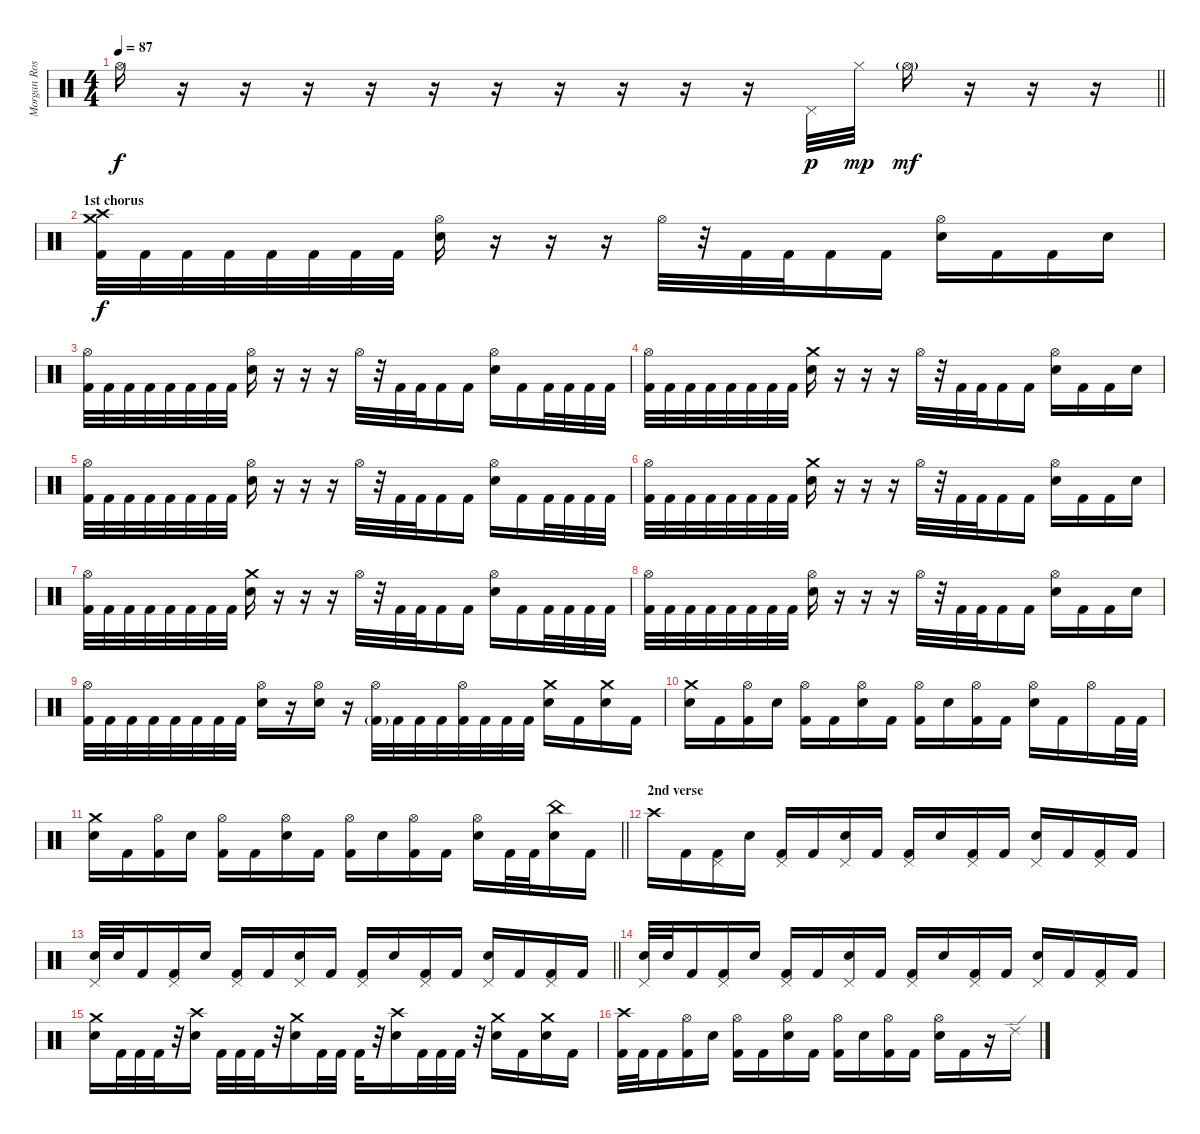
\track ("Morgan Rose" "Morgan Ros") {instrument percussion}
\staff {score}
\articulation defaults
\ts (4 4)
\tempo 87
\clef neutral
\barLineRight lightlight
\ks c "Hi-Hat (open)".16{dy f}
r.16 r.16 r.16 r.16 r.16 r.16 r.16 r.16 r.16 r.16 "Pedal Hi-Hat (hit)".32{dy p} "Hi-Hat (closed)".32{dy mp} "Hi-Hat (open)"{g}.16{dy mf} r.16 r.16 r.16 |
\section ("" "1st chorus")
("Crash medium (hit)" "Crash high (hit)" "Kick (hit) 2").32{dy f} "Kick (hit) 2".32 "Kick (hit) 2".32 "Kick (hit) 2".32 "Kick (hit) 2".32 "Kick (hit) 2".32 "Kick (hit) 2".32 "Kick (hit) 2".32 ("Hi-Hat (open)" "Snare (hit) 2").16 r.16 r.16 r.16 "Hi-Hat (open)".32 r.32 "Kick (hit) 2".32 "Kick (hit) 2".32 "Kick (hit) 2".16 "Kick (hit) 2".16 ("Hi-Hat (open)" "Snare (hit) 2").16 "Kick (hit) 2".16 "Kick (hit) 2".16 "Snare (hit) 2".16 |
("Hi-Hat (open)" "Kick (hit) 2").32 "Kick (hit) 2".32 "Kick (hit) 2".32 "Kick (hit) 2".32 "Kick (hit) 2".32 "Kick (hit) 2".32 "Kick (hit) 2".32 "Kick (hit) 2".32 ("Hi-Hat (open)" "Snare (hit) 2").16 r.16 r.16 r.16 "Hi-Hat (open)".32 r.32 "Kick (hit) 2".32 "Kick (hit) 2".32 "Kick (hit) 2".16 "Kick (hit) 2".16 ("Hi-Hat (open)" "Snare (hit) 2").16 "Kick (hit) 2".16 "Kick (hit) 2".32 "Kick (hit) 2".32 "Kick (hit) 2".32 "Kick (hit) 2".32 |
("Hi-Hat (open)" "Kick (hit) 2").32 "Kick (hit) 2".32 "Kick (hit) 2".32 "Kick (hit) 2".32 "Kick (hit) 2".32 "Kick (hit) 2".32 "Kick (hit) 2".32 "Kick (hit) 2".32 ("Crash medium (hit)" "Snare (hit) 2").16 r.16 r.16 r.16 "Hi-Hat (open)".32 r.32 "Kick (hit) 2".32 "Kick (hit) 2".32 "Kick (hit) 2".16 "Kick (hit) 2".16 ("Hi-Hat (open)" "Snare (hit) 2").16 "Kick (hit) 2".16 "Kick (hit) 2".16 "Snare (hit) 2".16 |
("Hi-Hat (open)" "Kick (hit) 2").32 "Kick (hit) 2".32 "Kick (hit) 2".32 "Kick (hit) 2".32 "Kick (hit) 2".32 "Kick (hit) 2".32 "Kick (hit) 2".32 "Kick (hit) 2".32 ("Hi-Hat (open)" "Snare (hit) 2").16 r.16 r.16 r.16 "Hi-Hat (open)".32 r.32 "Kick (hit) 2".32 "Kick (hit) 2".32 "Kick (hit) 2".16 "Kick (hit) 2".16 ("Hi-Hat (open)" "Snare (hit) 2").16 "Kick (hit) 2".16 "Kick (hit) 2".32 "Kick (hit) 2".32 "Kick (hit) 2".32 "Kick (hit) 2".32 |
("Hi-Hat (open)" "Kick (hit) 2").32 "Kick (hit) 2".32 "Kick (hit) 2".32 "Kick (hit) 2".32 "Kick (hit) 2".32 "Kick (hit) 2".32 "Kick (hit) 2".32 "Kick (hit) 2".32 ("Crash medium (hit)" "Snare (hit) 2").16 r.16 r.16 r.16 "Hi-Hat (open)".32 r.32 "Kick (hit) 2".32 "Kick (hit) 2".32 "Kick (hit) 2".16 "Kick (hit) 2".16 ("Hi-Hat (open)" "Snare (hit) 2").16 "Kick (hit) 2".16 "Kick (hit) 2".16 "Snare (hit) 2".16 |
("Hi-Hat (open)" "Kick (hit) 2").32 "Kick (hit) 2".32 "Kick (hit) 2".32 "Kick (hit) 2".32 "Kick (hit) 2".32 "Kick (hit) 2".32 "Kick (hit) 2".32 "Kick (hit) 2".32 ("Crash medium (hit)" "Snare (hit) 2").16 r.16 r.16 r.16 "Hi-Hat (open)".32 r.32 "Kick (hit) 2".32 "Kick (hit) 2".32 "Kick (hit) 2".16 "Kick (hit) 2".16 ("Hi-Hat (open)" "Snare (hit) 2").16 "Kick (hit) 2".16 "Kick (hit) 2".32 "Kick (hit) 2".32 "Kick (hit) 2".32 "Kick (hit) 2".32 |
("Hi-Hat (open)" "Kick (hit) 2").32 "Kick (hit) 2".32 "Kick (hit) 2".32 "Kick (hit) 2".32 "Kick (hit) 2".32 "Kick (hit) 2".32 "Kick (hit) 2".32 "Kick (hit) 2".32 ("Hi-Hat (open)" "Snare (hit) 2").16 r.16 r.16 r.16 "Hi-Hat (open)".32 r.32 "Kick (hit) 2".32 "Kick (hit) 2".32 "Kick (hit) 2".16 "Kick (hit) 2".16 ("Hi-Hat (open)" "Snare (hit) 2").16 "Kick (hit) 2".16 "Kick (hit) 2".16 "Snare (hit) 2".16 |
("Hi-Hat (open)" "Kick (hit) 2").32 "Kick (hit) 2".32 "Kick (hit) 2".32 "Kick (hit) 2".32 "Kick (hit) 2".32 "Kick (hit) 2".32 "Kick (hit) 2".32 "Kick (hit) 2".32 ("Hi-Hat (open)" "Snare (hit) 2").16 r.16 ("Hi-Hat (open)" "Snare (hit) 2").16 r.16 ("Hi-Hat (open)" "Kick (hit) 2"{g}).32 "Kick (hit) 2".32 "Kick (hit) 2".32 "Kick (hit) 2".32 ("Hi-Hat (open)" "Kick (hit) 2").32 "Kick (hit) 2".32 "Kick (hit) 2".32 "Kick (hit) 2".32 ("Crash medium (hit)" "Snare (hit) 2").16 "Kick (hit) 2".16 ("Crash medium (hit)" "Snare (hit) 2").16 "Kick (hit) 2".16 |
("Crash medium (hit)" "Snare (hit) 2").16 "Kick (hit) 2".16 ("Hi-Hat (open)" "Kick (hit) 2").16 "Snare (hit) 2".16 ("Hi-Hat (open)" "Kick (hit) 2").16 "Kick (hit) 2".16 ("Hi-Hat (open)" "Snare (hit) 2").16 "Kick (hit) 2".16 ("Hi-Hat (open)" "Kick (hit) 2").16 "Snare (hit) 2".16 ("Hi-Hat (open)" "Kick (hit) 2").16 "Kick (hit) 2".16 ("Hi-Hat (open)" "Snare (hit) 2").16 "Kick (hit) 2".16 "Hi-Hat (open)".16 "Kick (hit) 2".32 "Kick (hit) 2".32 |
\barLineRight lightlight
("Crash medium (hit)" "Snare (hit) 2").16 "Kick (hit) 2".16 ("Hi-Hat (open)" "Kick (hit) 2").16 "Snare (hit) 2".16 ("Hi-Hat (open)" "Kick (hit) 2").16 "Kick (hit) 2".16 ("Hi-Hat (open)" "Snare (hit) 2").16 "Kick (hit) 2".16 ("Hi-Hat (open)" "Kick (hit) 2").16 "Snare (hit) 2".16 ("Hi-Hat (open)" "Kick (hit) 2").16 "Kick (hit) 2".16 ("Hi-Hat (open)" "Snare (hit) 2").16 "Kick (hit) 2".32 "Kick (hit) 2".32 ("China (hit)" "Snare (hit) 2").16 "Kick (hit) 2".16 |
\section ("" "2nd verse")
"Crash high (hit)".16 "Kick (hit) 2".16 ("Pedal Hi-Hat (hit)" "Kick (hit) 2").16 "Snare (hit) 2".16 ("Pedal Hi-Hat (hit)" "Kick (hit) 2").16 "Kick (hit) 2".16 ("Pedal Hi-Hat (hit)" "Snare (hit) 2").16 "Kick (hit) 2".16 ("Pedal Hi-Hat (hit)" "Kick (hit) 2").16 "Snare (hit) 2".16 ("Pedal Hi-Hat (hit)" "Kick (hit) 2").16 "Kick (hit) 2".16 ("Pedal Hi-Hat (hit)" "Snare (hit) 2").16 "Kick (hit) 2".16 ("Pedal Hi-Hat (hit)" "Kick (hit) 2").16 "Kick (hit) 2".16 |
\barLineRight lightlight
("Pedal Hi-Hat (hit)" "Snare (hit) 2").32 "Snare (hit) 2".32 "Kick (hit) 2".16 ("Pedal Hi-Hat (hit)" "Kick (hit) 2").16 "Snare (hit) 2".16 ("Pedal Hi-Hat (hit)" "Kick (hit) 2").16 "Kick (hit) 2".16 ("Pedal Hi-Hat (hit)" "Snare (hit) 2").16 "Kick (hit) 2".16 ("Pedal Hi-Hat (hit)" "Kick (hit) 2").16 "Snare (hit) 2".16 ("Pedal Hi-Hat (hit)" "Kick (hit) 2").16 "Kick (hit) 2".16 ("Pedal Hi-Hat (hit)" "Snare (hit) 2").16 "Kick (hit) 2".16 ("Pedal Hi-Hat (hit)" "Kick (hit) 2").16 "Kick (hit) 2".16 |
("Pedal Hi-Hat (hit)" "Snare (hit) 2").32 "Snare (hit) 2".32 "Kick (hit) 2".16 ("Pedal Hi-Hat (hit)" "Kick (hit) 2").16 "Snare (hit) 2".16 ("Pedal Hi-Hat (hit)" "Kick (hit) 2").16 "Kick (hit) 2".16 ("Pedal Hi-Hat (hit)" "Snare (hit) 2").16 "Kick (hit) 2".16 ("Pedal Hi-Hat (hit)" "Kick (hit) 2").16 "Snare (hit) 2".16 ("Pedal Hi-Hat (hit)" "Kick (hit) 2").16 "Kick (hit) 2".16 ("Pedal Hi-Hat (hit)" "Snare (hit) 2").16 "Kick (hit) 2".16 ("Pedal Hi-Hat (hit)" "Kick (hit) 2").16 "Kick (hit) 2".16 |
("Crash medium (hit)" "Snare (hit) 2").16 "Kick (hit) 2".32 "Kick (hit) 2".32 "Kick (hit) 2".32 r.32 ("Crash high (hit)" "Snare (hit) 2").16 "Kick (hit) 2".32 "Kick (hit) 2".32 "Kick (hit) 2".32 r.32 ("Crash medium (hit)" "Snare (hit) 2").16 "Kick (hit) 2".32 "Kick (hit) 2".32 "Kick (hit) 2".32 r.32 ("Crash high (hit)" "Snare (hit) 2").16 "Kick (hit) 2".32 "Kick (hit) 2".32 "Kick (hit) 2".32 r.32 ("Crash medium (hit)" "Snare (hit) 2").16 "Kick (hit) 2".16 ("Crash medium (hit)" "Snare (hit) 2").16 "Kick (hit) 2".16 |
("Crash high (hit)" "Kick (hit) 2").32 "Kick (hit) 2".32 "Kick (hit) 2".16 ("Hi-Hat (open)" "Kick (hit) 2").16 "Snare (hit) 2".16 ("Hi-Hat (open)" "Kick (hit) 2").16 "Kick (hit) 2".16 ("Hi-Hat (open)" "Snare (hit) 2").16 "Kick (hit) 2".16 ("Hi-Hat (open)" "Kick (hit) 2").16 "Snare (hit) 2".16 ("Hi-Hat (open)" "Kick (hit) 2").16 "Kick (hit) 2".16 ("Hi-Hat (open)" "Snare (hit) 2").16 "Kick (hit) 2".16 r.16 "Ride (edge) 2".16
